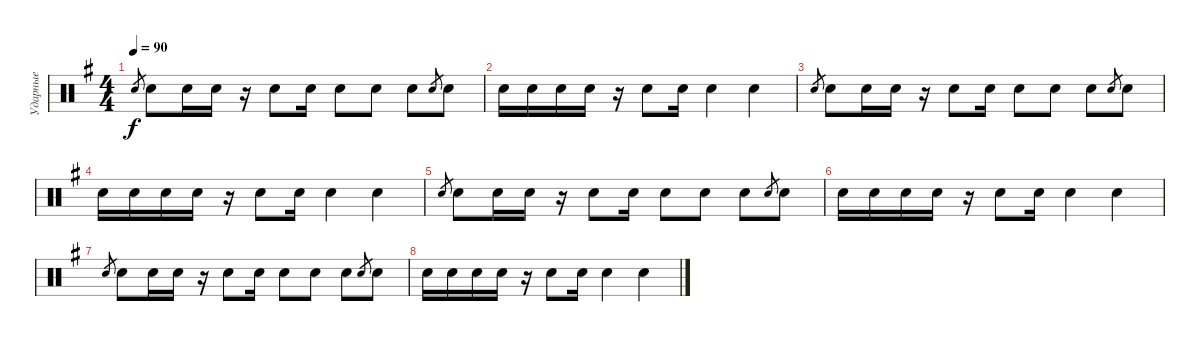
\track ("Ударные" "Ударные") {instrument percussion}
\staff {score}
\articulation defaults
\ts (4 4)
\tempo 90
\clef neutral
\ks g "Snare (hit) 2".8{gr dy f} "Snare (hit) 2".8 "Snare (hit) 2".16 "Snare (hit) 2".16
r.16 "Snare (hit) 2".8 "Snare (hit) 2".16 "Snare (hit) 2".8 "Snare (hit) 2".8 "Snare (hit) 2".8 "Snare (hit) 2".8{gr} "Snare (hit) 2".8 |
"Snare (hit) 2".16 "Snare (hit) 2".16 "Snare (hit) 2".16 "Snare (hit) 2".16 r.16 "Snare (hit) 2".8 "Snare (hit) 2".16 "Snare (hit) 2".4 "Snare (hit) 2".4 |
"Snare (hit) 2".8{gr} "Snare (hit) 2".8 "Snare (hit) 2".16 "Snare (hit) 2".16 r.16 "Snare (hit) 2".8 "Snare (hit) 2".16 "Snare (hit) 2".8 "Snare (hit) 2".8 "Snare (hit) 2".8 "Snare (hit) 2".8{gr} "Snare (hit) 2".8 |
"Snare (hit) 2".16 "Snare (hit) 2".16 "Snare (hit) 2".16 "Snare (hit) 2".16 r.16 "Snare (hit) 2".8 "Snare (hit) 2".16 "Snare (hit) 2".4 "Snare (hit) 2".4 |
"Snare (hit) 2".8{gr} "Snare (hit) 2".8 "Snare (hit) 2".16 "Snare (hit) 2".16 r.16 "Snare (hit) 2".8 "Snare (hit) 2".16 "Snare (hit) 2".8 "Snare (hit) 2".8 "Snare (hit) 2".8 "Snare (hit) 2".8{gr} "Snare (hit) 2".8 |
"Snare (hit) 2".16 "Snare (hit) 2".16 "Snare (hit) 2".16 "Snare (hit) 2".16 r.16 "Snare (hit) 2".8 "Snare (hit) 2".16 "Snare (hit) 2".4 "Snare (hit) 2".4 |
"Snare (hit) 2".8{gr} "Snare (hit) 2".8{volume 0} "Snare (hit) 2".16 "Snare (hit) 2".16 r.16 "Snare (hit) 2".8 "Snare (hit) 2".16 "Snare (hit) 2".8 "Snare (hit) 2".8 "Snare (hit) 2".8 "Snare (hit) 2".8{gr} "Snare (hit) 2".8 |
"Snare (hit) 2".16 "Snare (hit) 2".16 "Snare (hit) 2".16 "Snare (hit) 2".16 r.16 "Snare (hit) 2".8 "Snare (hit) 2".16 "Snare (hit) 2".4 "Snare (hit) 2".4
